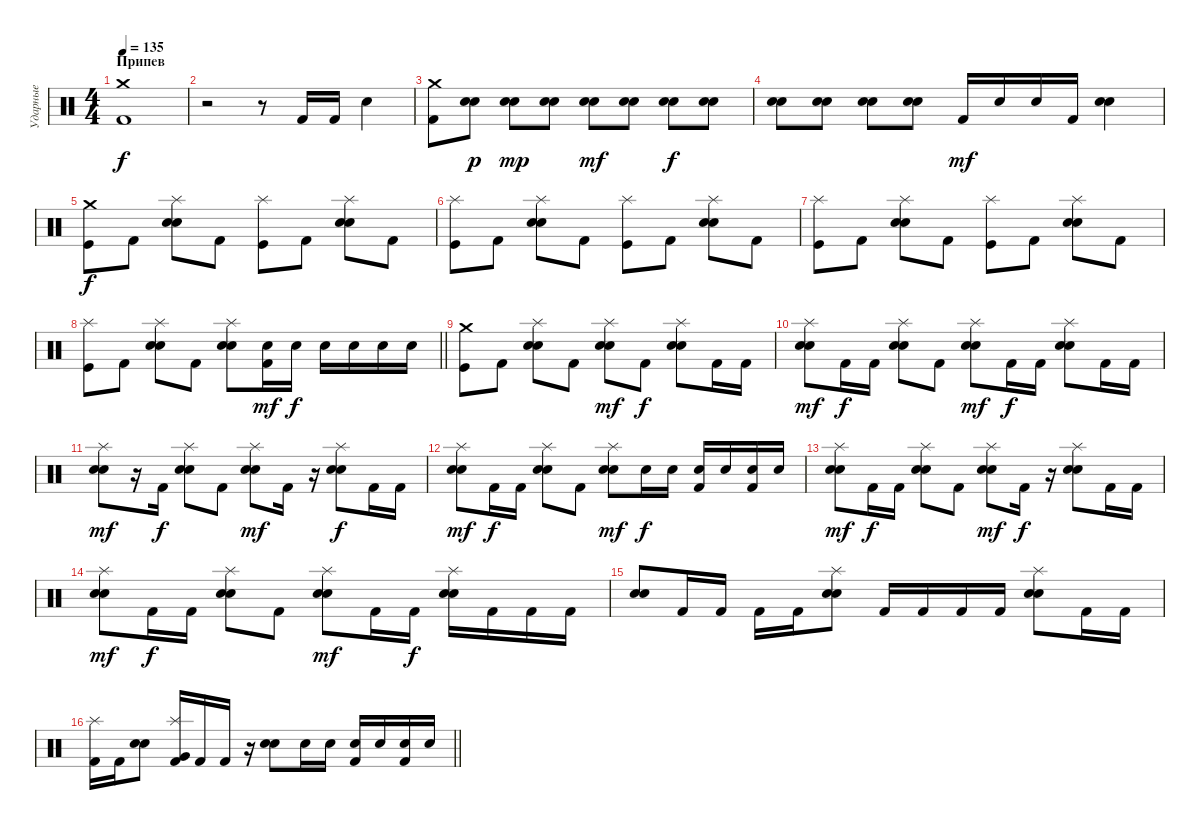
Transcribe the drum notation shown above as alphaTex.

\track ("Ударные" "Ударные") {instrument percussion}
\staff {score}
\articulation defaults
\ts (4 4)
\section ("" "Припев")
\tempo 135
\clef neutral
\ks c
("Crash medium (hit)" "Kick (hit) 2").1{dy f} |
r.2 r.8 "Kick (hit) 2".16 "Kick (hit) 2".16 "Electric Snare (hit)".4 |
("Crash medium (hit)" "Kick (hit) 2").8 ("Electric Snare (hit)" "Snare (hit) 2").8{dy p} ("Electric Snare (hit)" "Snare (hit) 2").8{dy mp} ("Electric Snare (hit)" "Snare (hit) 2").8 ("Electric Snare (hit)" "Snare (hit) 2").8{dy mf} ("Electric Snare (hit)" "Snare (hit) 2").8 ("Electric Snare (hit)" "Snare (hit) 2").8{dy f} ("Electric Snare (hit)" "Snare (hit) 2").8 |
("Electric Snare (hit)" "Snare (hit) 2").8 ("Electric Snare (hit)" "Snare (hit) 2").8 ("Electric Snare (hit)" "Snare (hit) 2").8 ("Electric Snare (hit)" "Snare (hit) 2").8 "Kick (hit) 2".16{dy mf} "Electric Snare (hit)".16 "Electric Snare (hit)".16 "Kick (hit) 2".16 ("Electric Snare (hit)" "Snare (hit) 2").4 |
("Crash medium (hit)" "Kick (hit)").8{dy f} "Kick (hit) 2".8 ("Splash (hit)" "Electric Snare (hit)" "Snare (hit) 2").8 "Kick (hit) 2".8 ("Splash (hit)" "Kick (hit)").8 "Kick (hit) 2".8 ("Splash (hit)" "Electric Snare (hit)" "Snare (hit) 2").8 "Kick (hit) 2".8 |
("Splash (hit)" "Kick (hit)").8 "Kick (hit) 2".8 ("Splash (hit)" "Electric Snare (hit)" "Snare (hit) 2").8 "Kick (hit) 2".8 ("Splash (hit)" "Kick (hit)").8 "Kick (hit) 2".8 ("Splash (hit)" "Electric Snare (hit)" "Snare (hit) 2").8 "Kick (hit) 2".8 |
("Splash (hit)" "Kick (hit)").8 "Kick (hit) 2".8 ("Splash (hit)" "Electric Snare (hit)" "Snare (hit) 2").8 "Kick (hit) 2".8 ("Splash (hit)" "Kick (hit)").8 "Kick (hit) 2".8 ("Splash (hit)" "Electric Snare (hit)" "Snare (hit) 2").8 "Kick (hit) 2".8 |
\barLineRight lightlight
("Splash (hit)" "Kick (hit)").8 "Kick (hit) 2".8 ("Splash (hit)" "Electric Snare (hit)" "Snare (hit) 2").8 "Kick (hit) 2".8 ("Splash (hit)" "Electric Snare (hit)" "Snare (hit) 2").8 ("Electric Snare (hit)" "Kick (hit) 2").16{dy mf} "Electric Snare (hit)".16{dy f} "Electric Snare (hit)".16 "Electric Snare (hit)".16 "Electric Snare (hit)".16 "Electric Snare (hit)".16 |
("Crash medium (hit)" "Kick (hit)").8 "Kick (hit) 2".8 ("Splash (hit)" "Electric Snare (hit)" "Snare (hit) 2").8 "Kick (hit) 2".8 ("Splash (hit)" "Electric Snare (hit)" "Snare (hit) 2").8{dy mf} "Kick (hit) 2".8{dy f} ("Splash (hit)" "Electric Snare (hit)" "Snare (hit) 2").8 "Kick (hit) 2".16 "Kick (hit) 2".16 |
("Splash (hit)" "Electric Snare (hit)" "Snare (hit) 2").8{dy mf} "Kick (hit) 2".16{dy f} "Kick (hit) 2".16 ("Splash (hit)" "Electric Snare (hit)" "Snare (hit) 2").8 "Kick (hit) 2".8 ("Splash (hit)" "Electric Snare (hit)" "Snare (hit) 2").8{dy mf} "Kick (hit) 2".16{dy f} "Kick (hit) 2".16 ("Splash (hit)" "Electric Snare (hit)" "Snare (hit) 2").8 "Kick (hit) 2".16 "Kick (hit) 2".16 |
("Splash (hit)" "Electric Snare (hit)" "Snare (hit) 2").8{dy mf} r.16 "Kick (hit) 2".16{dy f} ("Splash (hit)" "Electric Snare (hit)" "Snare (hit) 2").8 "Kick (hit) 2".8 ("Splash (hit)" "Electric Snare (hit)" "Snare (hit) 2").8{dy mf} "Kick (hit) 2".16 r.16 ("Splash (hit)" "Electric Snare (hit)" "Snare (hit) 2").8{dy f} "Kick (hit) 2".16 "Kick (hit) 2".16 |
("Splash (hit)" "Electric Snare (hit)" "Snare (hit) 2").8{dy mf} "Kick (hit) 2".16{dy f} "Kick (hit) 2".16 ("Splash (hit)" "Electric Snare (hit)" "Snare (hit) 2").8 "Kick (hit) 2".8 ("Splash (hit)" "Electric Snare (hit)" "Snare (hit) 2").8{dy mf} "Electric Snare (hit)".16{dy f} "Electric Snare (hit)".16 ("Electric Snare (hit)" "Kick (hit) 2").16 "Electric Snare (hit)".16 ("Electric Snare (hit)" "Kick (hit) 2").16 "Electric Snare (hit)".16 |
("Splash (hit)" "Electric Snare (hit)" "Snare (hit) 2").8{dy mf} "Kick (hit) 2".16{dy f} "Kick (hit) 2".16 ("Splash (hit)" "Electric Snare (hit)" "Snare (hit) 2").8 "Kick (hit) 2".8 ("Splash (hit)" "Electric Snare (hit)" "Snare (hit) 2").8{dy mf} "Kick (hit) 2".16{dy f} r.16 ("Splash (hit)" "Electric Snare (hit)" "Snare (hit) 2").8 "Kick (hit) 2".16 "Kick (hit) 2".16 |
("Splash (hit)" "Electric Snare (hit)" "Snare (hit) 2").8{dy mf} "Kick (hit) 2".16{dy f} "Kick (hit) 2".16 ("Splash (hit)" "Electric Snare (hit)" "Snare (hit) 2").8 "Kick (hit) 2".8 ("Splash (hit)" "Electric Snare (hit)" "Snare (hit) 2").8{dy mf} "Kick (hit) 2".16 "Kick (hit) 2".16{dy f} ("Splash (hit)" "Electric Snare (hit)" "Snare (hit) 2").16 "Kick (hit) 2".16 "Kick (hit) 2".16 "Kick (hit) 2".16 |
("Electric Snare (hit)" "Snare (hit) 2").8 "Kick (hit) 2".16 "Kick (hit) 2".16 "Kick (hit) 2".16 "Kick (hit) 2".16 ("Splash (hit)" "Electric Snare (hit)" "Snare (hit) 2").8 "Kick (hit) 2".16 "Kick (hit) 2".16 "Kick (hit) 2".16 "Kick (hit) 2".16 ("Splash (hit)" "Electric Snare (hit)" "Snare (hit) 2").8 "Kick (hit) 2".16 "Kick (hit) 2".16 |
\barLineRight lightlight
("Splash (hit)" "Kick (hit) 2").16 "Kick (hit) 2".16 ("Electric Snare (hit)" "Snare (hit) 2").8 ("Splash (hit)" "Very Low Tom (hit)" "Kick (hit) 2").16 "Kick (hit) 2".16 "Kick (hit) 2".16 r.16 ("Electric Snare (hit)" "Snare (hit) 2").8 "Electric Snare (hit)".16 "Electric Snare (hit)".16 ("Electric Snare (hit)" "Kick (hit) 2").16 "Electric Snare (hit)".16 ("Electric Snare (hit)" "Kick (hit) 2").16 "Electric Snare (hit)".16
